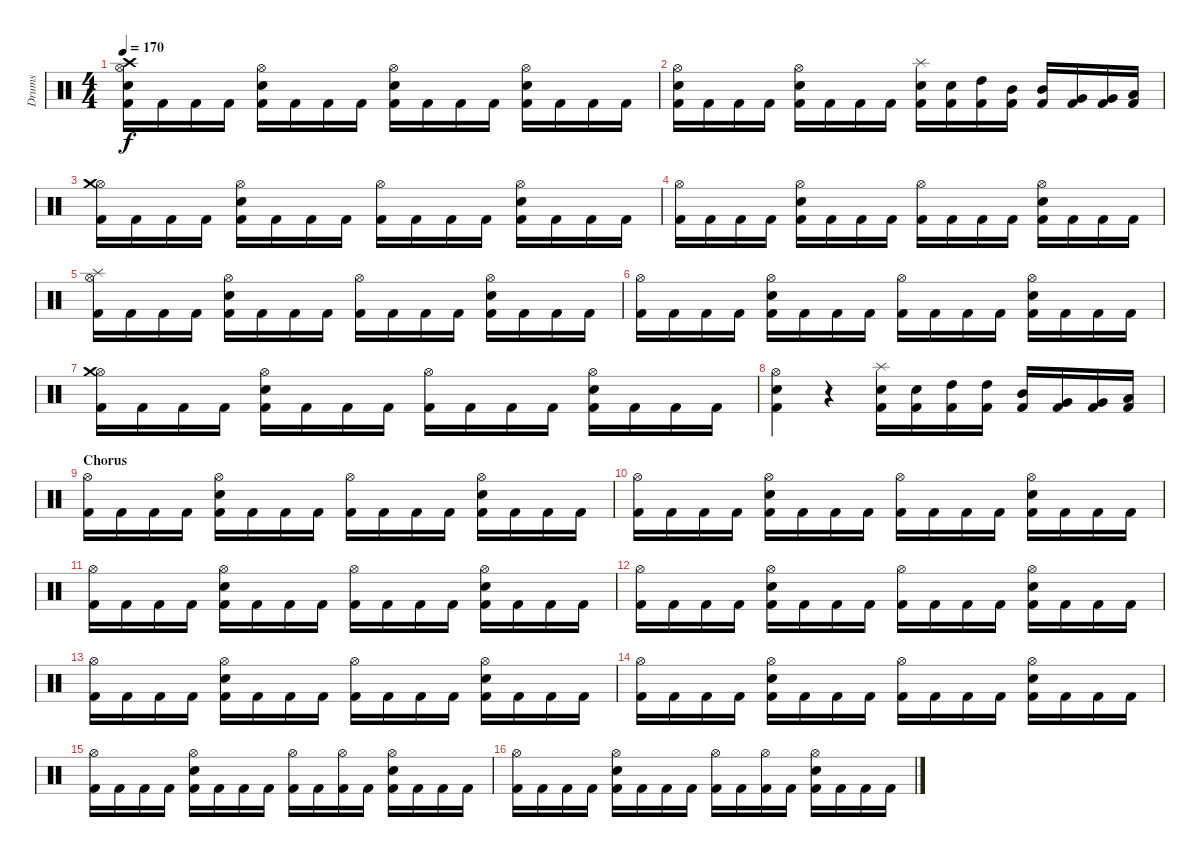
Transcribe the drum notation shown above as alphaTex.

\track ("Drums" "Drums") {instrument percussion}
\staff {score}
\articulation defaults
\ts (4 4)
\tempo 170
\clef neutral
\ks c
("Kick (hit) 2" "Snare (hit) 2" "Hi-Hat (open)" "Crash high (hit)").16{dy f} "Kick (hit) 2".16 "Kick (hit) 2".16 "Kick (hit) 2".16 ("Kick (hit) 2" "Snare (hit) 2" "Hi-Hat (open)").16 "Kick (hit) 2".16 "Kick (hit) 2".16 "Kick (hit) 2".16 ("Kick (hit) 2" "Snare (hit) 2" "Hi-Hat (open)").16 "Kick (hit) 2".16 "Kick (hit) 2".16 "Kick (hit) 2".16 ("Kick (hit) 2" "Snare (hit) 2" "Hi-Hat (open)").16 "Kick (hit) 2".16 "Kick (hit) 2".16 "Kick (hit) 2".16 |
("Kick (hit) 2" "Snare (hit) 2" "Hi-Hat (open)").16 "Kick (hit) 2".16 "Kick (hit) 2".16 "Kick (hit) 2".16 ("Kick (hit) 2" "Snare (hit) 2" "Hi-Hat (open)").16 "Kick (hit) 2".16 "Kick (hit) 2".16 "Kick (hit) 2".16 ("Kick (hit) 2" "Snare (hit) 2" "Splash (hit)").16 ("Kick (hit) 2" "Snare (hit) 2").16 ("Kick (hit) 2" "High Tom (hit)").16 ("Kick (hit) 2" "Mid Tom (hit)").16 ("Kick (hit) 2" "Mid Tom (hit)").16 ("Kick (hit) 2" "Very Low Tom (hit)").16 ("Kick (hit) 2" "Very Low Tom (hit)").16 ("Kick (hit) 2" "Low Floor Tom (hit)").16 |
("Kick (hit) 2" "Hi-Hat (open)" "Crash medium (hit)").16 "Kick (hit) 2".16 "Kick (hit) 2".16 "Kick (hit) 2".16 ("Kick (hit) 2" "Snare (hit) 2" "Hi-Hat (open)").16 "Kick (hit) 2".16 "Kick (hit) 2".16 "Kick (hit) 2".16 ("Kick (hit) 2" "Hi-Hat (open)").16 "Kick (hit) 2".16 "Kick (hit) 2".16 "Kick (hit) 2".16 ("Kick (hit) 2" "Snare (hit) 2" "Hi-Hat (open)").16 "Kick (hit) 2".16 "Kick (hit) 2".16 "Kick (hit) 2".16 |
("Kick (hit) 2" "Hi-Hat (open)").16 "Kick (hit) 2".16 "Kick (hit) 2".16 "Kick (hit) 2".16 ("Kick (hit) 2" "Snare (hit) 2" "Hi-Hat (open)").16 "Kick (hit) 2".16 "Kick (hit) 2".16 "Kick (hit) 2".16 ("Kick (hit) 2" "Hi-Hat (open)").16 "Kick (hit) 2".16 "Kick (hit) 2".16 "Kick (hit) 2".16 ("Kick (hit) 2" "Snare (hit) 2" "Hi-Hat (open)").16 "Kick (hit) 2".16 "Kick (hit) 2".16 "Kick (hit) 2".16 |
("Kick (hit) 2" "Hi-Hat (open)" "Splash (hit)").16 "Kick (hit) 2".16 "Kick (hit) 2".16 "Kick (hit) 2".16 ("Kick (hit) 2" "Snare (hit) 2" "Hi-Hat (open)").16 "Kick (hit) 2".16 "Kick (hit) 2".16 "Kick (hit) 2".16 ("Kick (hit) 2" "Hi-Hat (open)").16 "Kick (hit) 2".16 "Kick (hit) 2".16 "Kick (hit) 2".16 ("Kick (hit) 2" "Snare (hit) 2" "Hi-Hat (open)").16 "Kick (hit) 2".16 "Kick (hit) 2".16 "Kick (hit) 2".16 |
("Kick (hit) 2" "Hi-Hat (open)").16 "Kick (hit) 2".16 "Kick (hit) 2".16 "Kick (hit) 2".16 ("Kick (hit) 2" "Snare (hit) 2" "Hi-Hat (open)").16 "Kick (hit) 2".16 "Kick (hit) 2".16 "Kick (hit) 2".16 ("Kick (hit) 2" "Hi-Hat (open)").16 "Kick (hit) 2".16 "Kick (hit) 2".16 "Kick (hit) 2".16 ("Kick (hit) 2" "Snare (hit) 2" "Hi-Hat (open)").16 "Kick (hit) 2".16 "Kick (hit) 2".16 "Kick (hit) 2".16 |
("Kick (hit) 2" "Hi-Hat (open)" "Crash medium (hit)").16 "Kick (hit) 2".16 "Kick (hit) 2".16 "Kick (hit) 2".16 ("Kick (hit) 2" "Snare (hit) 2" "Hi-Hat (open)").16 "Kick (hit) 2".16 "Kick (hit) 2".16 "Kick (hit) 2".16 ("Kick (hit) 2" "Hi-Hat (open)").16 "Kick (hit) 2".16 "Kick (hit) 2".16 "Kick (hit) 2".16 ("Kick (hit) 2" "Snare (hit) 2" "Hi-Hat (open)").16 "Kick (hit) 2".16 "Kick (hit) 2".16 "Kick (hit) 2".16 |
("Kick (hit) 2" "Snare (hit) 2" "Hi-Hat (open)").4 r.4 ("Kick (hit) 2" "Snare (hit) 2" "Splash (hit)").16 ("Kick (hit) 2" "Snare (hit) 2").16 ("Kick (hit) 2" "High Tom (hit)").16 ("Kick (hit) 2" "High Tom (hit)").16 ("Kick (hit) 2" "Mid Tom (hit)").16 ("Kick (hit) 2" "Very Low Tom (hit)").16 ("Kick (hit) 2" "Very Low Tom (hit)").16 ("Kick (hit) 2" "Low Floor Tom (hit)").16 |
\section ("" "Chorus")
("Kick (hit) 2" "Hi-Hat (open)").16 "Kick (hit) 2".16 "Kick (hit) 2".16 "Kick (hit) 2".16 ("Kick (hit) 2" "Snare (hit) 2" "Hi-Hat (open)").16 "Kick (hit) 2".16 "Kick (hit) 2".16 "Kick (hit) 2".16 ("Kick (hit) 2" "Hi-Hat (open)").16 "Kick (hit) 2".16 "Kick (hit) 2".16 "Kick (hit) 2".16 ("Kick (hit) 2" "Snare (hit) 2" "Hi-Hat (open)").16 "Kick (hit) 2".16 "Kick (hit) 2".16 "Kick (hit) 2".16 |
("Kick (hit) 2" "Hi-Hat (open)").16 "Kick (hit) 2".16 "Kick (hit) 2".16 "Kick (hit) 2".16 ("Kick (hit) 2" "Snare (hit) 2" "Hi-Hat (open)").16 "Kick (hit) 2".16 "Kick (hit) 2".16 "Kick (hit) 2".16 ("Kick (hit) 2" "Hi-Hat (open)").16 "Kick (hit) 2".16 "Kick (hit) 2".16 "Kick (hit) 2".16 ("Kick (hit) 2" "Snare (hit) 2" "Hi-Hat (open)").16 "Kick (hit) 2".16 "Kick (hit) 2".16 "Kick (hit) 2".16 |
("Kick (hit) 2" "Hi-Hat (open)").16 "Kick (hit) 2".16 "Kick (hit) 2".16 "Kick (hit) 2".16 ("Kick (hit) 2" "Snare (hit) 2" "Hi-Hat (open)").16 "Kick (hit) 2".16 "Kick (hit) 2".16 "Kick (hit) 2".16 ("Kick (hit) 2" "Hi-Hat (open)").16 "Kick (hit) 2".16 "Kick (hit) 2".16 "Kick (hit) 2".16 ("Kick (hit) 2" "Snare (hit) 2" "Hi-Hat (open)").16 "Kick (hit) 2".16 "Kick (hit) 2".16 "Kick (hit) 2".16 |
("Kick (hit) 2" "Hi-Hat (open)").16 "Kick (hit) 2".16 "Kick (hit) 2".16 "Kick (hit) 2".16 ("Kick (hit) 2" "Snare (hit) 2" "Hi-Hat (open)").16 "Kick (hit) 2".16 "Kick (hit) 2".16 "Kick (hit) 2".16 ("Kick (hit) 2" "Hi-Hat (open)").16 "Kick (hit) 2".16 "Kick (hit) 2".16 "Kick (hit) 2".16 ("Kick (hit) 2" "Snare (hit) 2" "Hi-Hat (open)").16 "Kick (hit) 2".16 "Kick (hit) 2".16 "Kick (hit) 2".16 |
("Kick (hit) 2" "Hi-Hat (open)").16 "Kick (hit) 2".16 "Kick (hit) 2".16 "Kick (hit) 2".16 ("Kick (hit) 2" "Snare (hit) 2" "Hi-Hat (open)").16 "Kick (hit) 2".16 "Kick (hit) 2".16 "Kick (hit) 2".16 ("Kick (hit) 2" "Hi-Hat (open)").16 "Kick (hit) 2".16 "Kick (hit) 2".16 "Kick (hit) 2".16 ("Kick (hit) 2" "Snare (hit) 2" "Hi-Hat (open)").16 "Kick (hit) 2".16 "Kick (hit) 2".16 "Kick (hit) 2".16 |
("Kick (hit) 2" "Hi-Hat (open)").16 "Kick (hit) 2".16 "Kick (hit) 2".16 "Kick (hit) 2".16 ("Kick (hit) 2" "Snare (hit) 2" "Hi-Hat (open)").16 "Kick (hit) 2".16 "Kick (hit) 2".16 "Kick (hit) 2".16 ("Kick (hit) 2" "Hi-Hat (open)").16 "Kick (hit) 2".16 "Kick (hit) 2".16 "Kick (hit) 2".16 ("Kick (hit) 2" "Snare (hit) 2" "Hi-Hat (open)").16 "Kick (hit) 2".16 "Kick (hit) 2".16 "Kick (hit) 2".16 |
("Kick (hit) 2" "Hi-Hat (open)").16 "Kick (hit) 2".16 "Kick (hit) 2".16 "Kick (hit) 2".16 ("Kick (hit) 2" "Snare (hit) 2" "Hi-Hat (open)").16 "Kick (hit) 2".16 "Kick (hit) 2".16 "Kick (hit) 2".16 ("Kick (hit) 2" "Hi-Hat (open)").16 "Kick (hit) 2".16 ("Kick (hit) 2" "Hi-Hat (open)").16 "Kick (hit) 2".16 ("Kick (hit) 2" "Snare (hit) 2" "Hi-Hat (open)").16 "Kick (hit) 2".16 "Kick (hit) 2".16 "Kick (hit) 2".16 |
("Kick (hit) 2" "Hi-Hat (open)").16 "Kick (hit) 2".16 "Kick (hit) 2".16 "Kick (hit) 2".16 ("Kick (hit) 2" "Snare (hit) 2" "Hi-Hat (open)").16 "Kick (hit) 2".16 "Kick (hit) 2".16 "Kick (hit) 2".16 ("Kick (hit) 2" "Hi-Hat (open)").16 "Kick (hit) 2".16 ("Kick (hit) 2" "Hi-Hat (open)").16 "Kick (hit) 2".16 ("Kick (hit) 2" "Snare (hit) 2" "Hi-Hat (open)").16 "Kick (hit) 2".16 "Kick (hit) 2".16 "Kick (hit) 2".16
